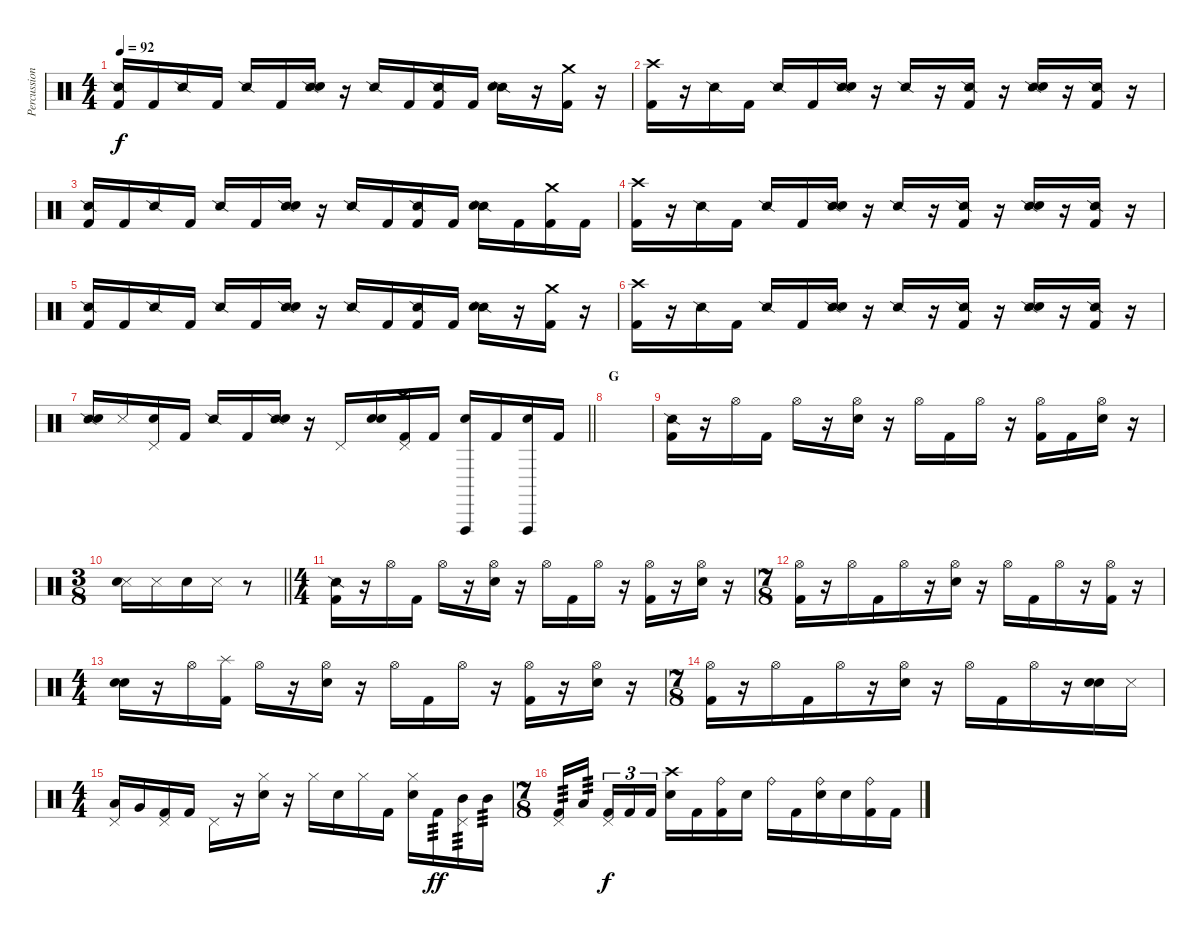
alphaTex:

\track ("Percussion" "Percussion") {instrument percussion}
\staff {score}
\articulation defaults
\ts (4 4)
\tempo 92
\clef neutral
\ks c
("Snare (side stick) 2" "Kick (hit) 2").16{dy f} "Kick (hit) 2".16 "Snare (side stick) 2".16 "Kick (hit) 2".16 "Snare (side stick) 2".16 "Kick (hit) 2".16 ("Snare (side stick) 2" "Snare (hit) 2").16 r.16 "Snare (side stick) 2".16 "Kick (hit) 2".16 ("Snare (side stick) 2" "Kick (hit) 2").16 "Kick (hit) 2".16 ("Snare (side stick) 2" "Snare (hit) 2").16 r.16 ("Crash medium (hit)" "Kick (hit) 2").16 r.16 |
("Crash high (hit)" "Kick (hit) 2").16 r.16 "Snare (side stick) 2".16 "Kick (hit) 2".16 "Snare (side stick) 2".16 "Kick (hit) 2".16 ("Snare (side stick) 2" "Snare (hit) 2").16 r.16 "Snare (side stick) 2".16 r.16 ("Snare (side stick) 2" "Kick (hit) 2").16 r.16 ("Snare (side stick) 2" "Snare (hit) 2").16 r.16 ("Snare (side stick) 2" "Kick (hit) 2").16 r.16 |
("Snare (side stick) 2" "Kick (hit) 2").16 "Kick (hit) 2".16 "Snare (side stick) 2".16 "Kick (hit) 2".16 "Snare (side stick) 2".16 "Kick (hit) 2".16 ("Snare (side stick) 2" "Snare (hit) 2").16 r.16 "Snare (side stick) 2".16 "Kick (hit) 2".16 ("Snare (side stick) 2" "Kick (hit) 2").16 "Kick (hit) 2".16 ("Snare (side stick) 2" "Snare (hit) 2").16 "Kick (hit) 2".16 ("Crash medium (hit)" "Kick (hit) 2").16 "Kick (hit) 2".16 |
("Crash high (hit)" "Kick (hit) 2").16 r.16 "Snare (side stick) 2".16 "Kick (hit) 2".16 "Snare (side stick) 2".16 "Kick (hit) 2".16 ("Snare (side stick) 2" "Snare (hit) 2").16 r.16 "Snare (side stick) 2".16 r.16 ("Snare (side stick) 2" "Kick (hit) 2").16 r.16 ("Snare (side stick) 2" "Snare (hit) 2").16 r.16 ("Snare (side stick) 2" "Kick (hit) 2").16 r.16 |
("Snare (side stick) 2" "Kick (hit) 2").16 "Kick (hit) 2".16 "Snare (side stick) 2".16 "Kick (hit) 2".16 "Snare (side stick) 2".16 "Kick (hit) 2".16 ("Snare (side stick) 2" "Snare (hit) 2").16 r.16 "Snare (side stick) 2".16 "Kick (hit) 2".16 ("Snare (side stick) 2" "Kick (hit) 2").16 "Kick (hit) 2".16 ("Snare (side stick) 2" "Snare (hit) 2").16 r.16 ("Crash medium (hit)" "Kick (hit) 2").16 r.16 |
("Crash high (hit)" "Kick (hit) 2").16 r.16 "Snare (side stick) 2".16 "Kick (hit) 2".16 "Snare (side stick) 2".16 "Kick (hit) 2".16 ("Snare (side stick) 2" "Snare (hit) 2").16 r.16 "Snare (side stick) 2".16 r.16 ("Snare (side stick) 2" "Kick (hit) 2").16 r.16 ("Snare (side stick) 2" "Snare (hit) 2").16 r.16 ("Snare (side stick) 2" "Kick (hit) 2").16 r.16 |
\barLineRight lightlight
("Snare (side stick) 2" "Snare (hit) 2").16 "Metronome (hit)".16 ("Pedal Hi-Hat (hit)" "Snare (hit) 2").16 "Kick (hit) 2".16 "Snare (side stick) 2".16 "Kick (hit) 2".16 ("Snare (side stick) 2" "Snare (hit) 2").16 r.16 "Pedal Hi-Hat (hit)".16 ("Snare (hit)" "Snare (hit) 2").16 ("Crash high (hit)" "Pedal Hi-Hat (hit)" "Kick (hit) 2").16 "Kick (hit) 2".16 ("Vibraslap (hit)" "Snare (hit) 2").16 "Kick (hit) 2".16 ("Vibraslap (hit)" "Snare (hit) 2").16 "Kick (hit) 2".16 |
\section ("" "G")
|
("Snare (side stick) 2" "Kick (hit) 2").16 r.16 "Hi-Hat (open)".16 "Kick (hit) 2".16 "Hi-Hat (open)".16 r.16 ("Hi-Hat (open)" "Snare (hit) 2").16 r.16 "Hi-Hat (open)".16 "Kick (hit) 2".16 "Hi-Hat (open)".16 r.16 ("Hi-Hat (open)" "Kick (hit) 2").16 "Kick (hit) 2".16 ("Hi-Hat (open)" "Snare (hit) 2").16 r.16 |
\ts (3 8)
\barLineRight lightlight
("Metronome (hit)" "Snare (hit) 2").16{bu 120} "Metronome (hit)".16 "Snare (hit) 2".16 "Metronome (hit)".16 r.8 |
\ts (4 4)
("Snare (side stick) 2" "Kick (hit) 2").16 r.16 "Hi-Hat (open)".16 "Kick (hit) 2".16 "Hi-Hat (open)".16 r.16 ("Hi-Hat (open)" "Snare (hit) 2").16 r.16 "Hi-Hat (open)".16 "Kick (hit) 2".16 "Hi-Hat (open)".16 r.16 ("Hi-Hat (open)" "Kick (hit) 2").16 r.16 ("Hi-Hat (open)" "Snare (hit) 2").16 r.16 |
\ts (7 8)
("Hi-Hat (open)" "Kick (hit) 2").16 r.16 "Hi-Hat (open)".16 "Kick (hit) 2".16 "Hi-Hat (open)".16 r.16 ("Hi-Hat (open)" "Snare (hit) 2").16 r.16 "Hi-Hat (open)".16 "Kick (hit) 2".16 "Hi-Hat (open)".16 r.16 ("Hi-Hat (open)" "Kick (hit) 2").16 r.16 |
\ts (4 4)
("Snare (hit)" "Snare (hit) 2").16 r.16 "Hi-Hat (open)".16 ("Splash (hit)" "Kick (hit) 2").16 "Hi-Hat (open)".16 r.16 ("Hi-Hat (open)" "Snare (hit) 2").16 r.16 "Hi-Hat (open)".16 "Kick (hit) 2".16 "Hi-Hat (open)".16 r.16 ("Hi-Hat (open)" "Kick (hit) 2").16 r.16 ("Hi-Hat (open)" "Snare (hit) 2").16 r.16 |
\ts (7 8)
("Hi-Hat (open)" "Kick (hit) 2").16 r.16 "Hi-Hat (open)".16 "Kick (hit) 2".16 "Hi-Hat (open)".16 r.16 ("Hi-Hat (open)" "Snare (hit) 2").16 r.16 "Hi-Hat (open)".16 "Kick (hit) 2".16 "Hi-Hat (open)".16 r.16 ("Snare (hit)" "Snare (hit) 2").16 "Metronome (hit)".16 |
\ts (4 4)
("Pedal Hi-Hat (hit)" "Low Tom (hit)").16 "Very Low Tom (hit)".16 ("Pedal Hi-Hat (hit)" "Kick (hit) 2").16 "Kick (hit) 2".16 "Pedal Hi-Hat (hit)".16 r.16 ("Hi-Hat (closed)" "Snare (hit) 2").16 r.16 "Hi-Hat (closed)".16 "Snare (hit) 2".16 "Hi-Hat (closed)".16 "Kick (hit) 2".16 ("Hi-Hat (closed)" "Snare (hit) 2").16 "Kick (hit) 2".16{tp 3 dy ff} ("Pedal Hi-Hat (hit)" "Mid Tom (hit)").16{tp 3} "Mid Tom (hit)".16{tp 3} |
\ts (7 8)
("Pedal Hi-Hat (hit)" "Kick (hit) 2").16{tp 3} "Low Tom (hit)".16{tp 3} ("Pedal Hi-Hat (hit)" "Kick (hit) 2").16{tu (3 2) dy f} "Kick (hit) 2".16{tu (3 2)} "Kick (hit) 2".16{tu (3 2)} ("Crash high (hit)" "Snare (hit) 2").16 "Kick (hit) 2".16 ("Ride (bell)" "Kick (hit) 2").16 "Snare (hit) 2".16 "Ride (bell)".16 "Kick (hit) 2".16 ("Ride (bell)" "Snare (hit) 2").16 "Snare (hit) 2".16 ("Ride (bell)" "Kick (hit) 2").16 "Kick (hit) 2".16
